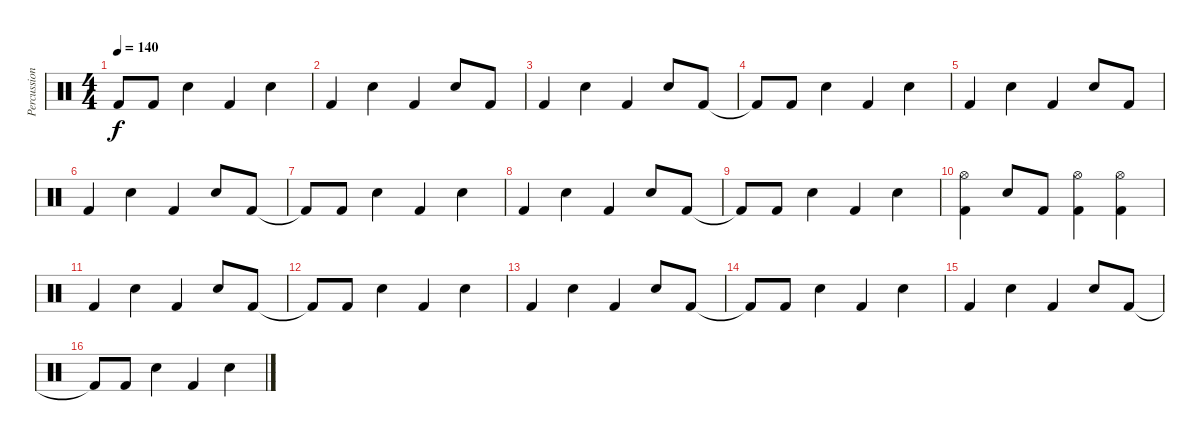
\track ("Percussion" "Percussion") {instrument percussion}
\staff {score}
\articulation defaults
\ts (4 4)
\tempo 140
\clef neutral
\ks c "Kick (hit) 2"{t}.8{dy f} "Kick (hit) 2".8 "Electric Snare (hit)".4 "Kick (hit) 2".4 "Electric Snare (hit)".4
|
"Kick (hit) 2".4 "Electric Snare (hit)".4 "Kick (hit) 2".4 "Electric Snare (hit)".8 "Kick (hit) 2".8 |
"Kick (hit) 2".4 "Electric Snare (hit)".4 "Kick (hit) 2".4 "Electric Snare (hit)".8 "Kick (hit) 2".8 |
"Kick (hit) 2"{t}.8 "Kick (hit) 2".8 "Electric Snare (hit)".4 "Kick (hit) 2".4 "Electric Snare (hit)".4 |
"Kick (hit) 2".4 "Electric Snare (hit)".4 "Kick (hit) 2".4 "Electric Snare (hit)".8 "Kick (hit) 2".8 |
"Kick (hit) 2".4 "Electric Snare (hit)".4 "Kick (hit) 2".4 "Electric Snare (hit)".8 "Kick (hit) 2".8 |
"Kick (hit) 2"{t}.8 "Kick (hit) 2".8 "Electric Snare (hit)".4 "Kick (hit) 2".4 "Electric Snare (hit)".4 |
"Kick (hit) 2".4 "Electric Snare (hit)".4 "Kick (hit) 2".4 "Electric Snare (hit)".8 "Kick (hit) 2".8 |
"Kick (hit) 2"{t}.8 "Kick (hit) 2".8 "Electric Snare (hit)".4 "Kick (hit) 2".4 "Electric Snare (hit)".4 |
("Hi-Hat (open)" "Kick (hit) 2").4 "Electric Snare (hit)".8 "Kick (hit) 2".8 ("Hi-Hat (open)" "Kick (hit) 2").4 ("Hi-Hat (open)" "Kick (hit) 2").4 |
"Kick (hit) 2".4 "Electric Snare (hit)".4 "Kick (hit) 2".4 "Electric Snare (hit)".8 "Kick (hit) 2".8 |
"Kick (hit) 2"{t}.8 "Kick (hit) 2".8 "Electric Snare (hit)".4 "Kick (hit) 2".4 "Electric Snare (hit)".4 |
"Kick (hit) 2".4 "Electric Snare (hit)".4 "Kick (hit) 2".4 "Electric Snare (hit)".8 "Kick (hit) 2".8 |
"Kick (hit) 2"{t}.8 "Kick (hit) 2".8 "Electric Snare (hit)".4 "Kick (hit) 2".4 "Electric Snare (hit)".4 |
"Kick (hit) 2".4 "Electric Snare (hit)".4 "Kick (hit) 2".4 "Electric Snare (hit)".8 "Kick (hit) 2".8 |
"Kick (hit) 2"{t}.8 "Kick (hit) 2".8 "Electric Snare (hit)".4 "Kick (hit) 2".4 "Electric Snare (hit)".4
